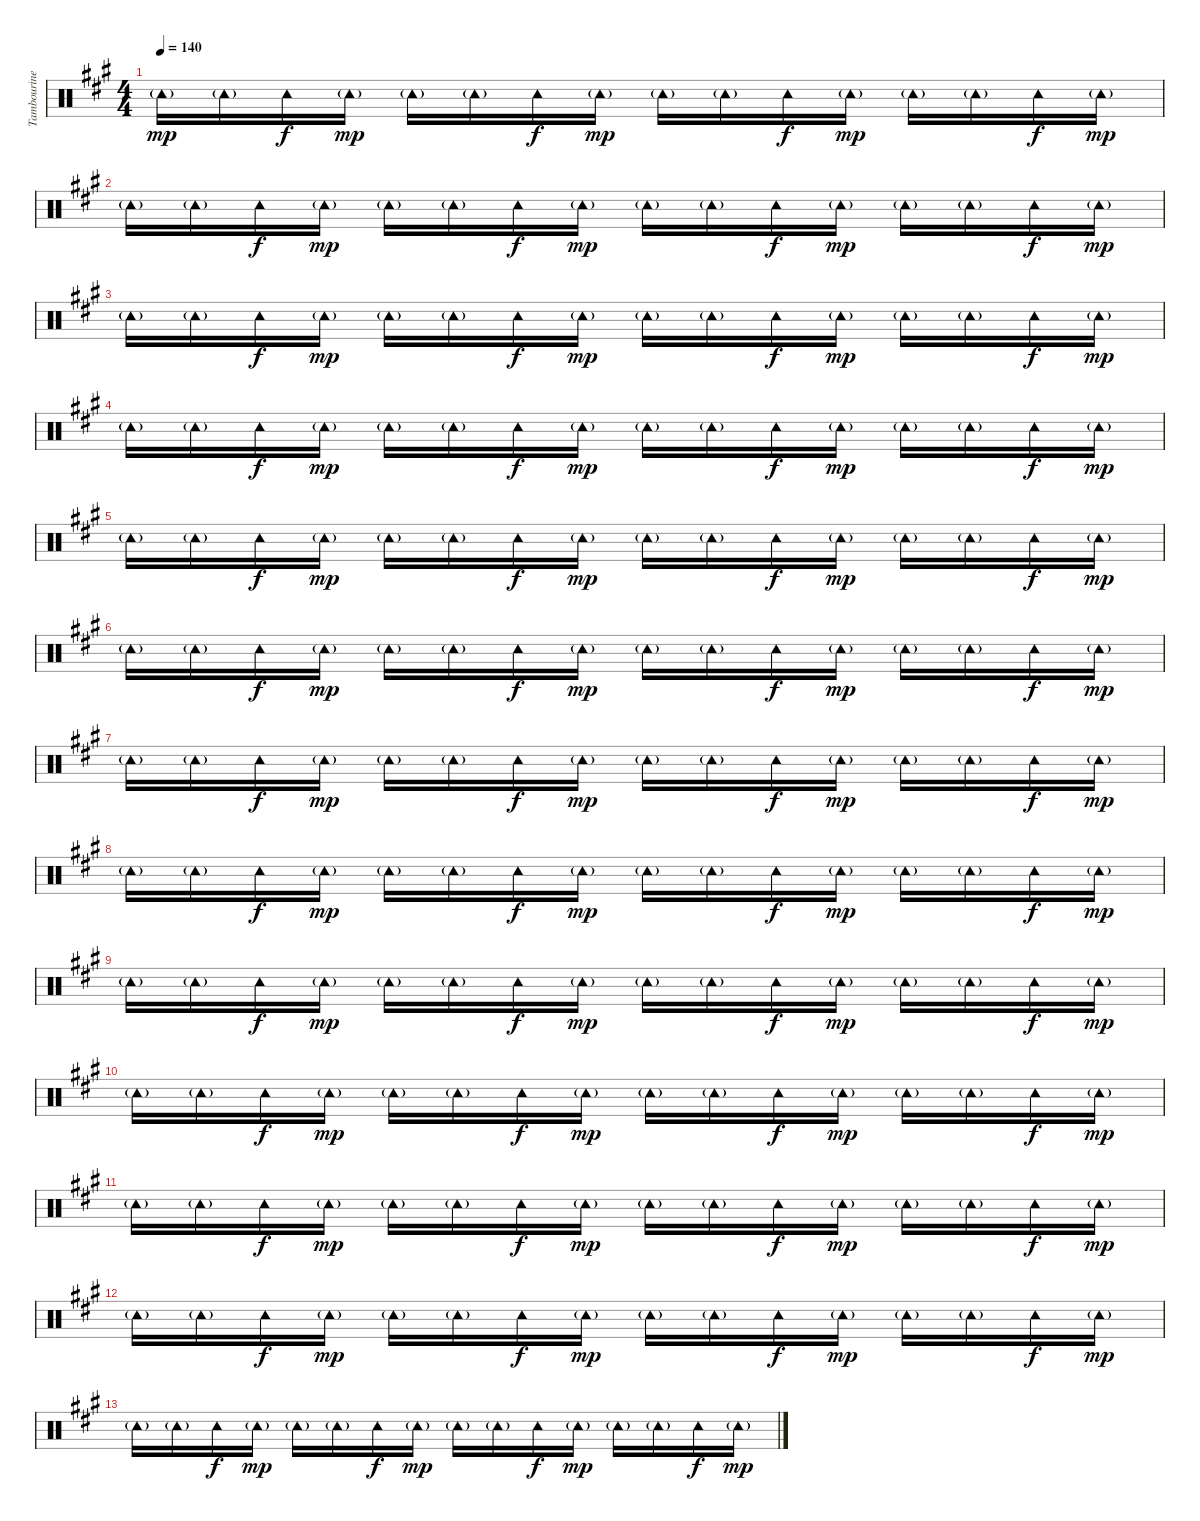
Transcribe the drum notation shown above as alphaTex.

\track ("Tambourine" "Tambourine") {instrument percussion}
\staff {score}
\articulation defaults
\ts (4 4)
\tempo 140
\clef neutral
\ks a "Tambourine (hit)"{g}.16{dy mp} "Tambourine (hit)"{g}.16 "Tambourine (hit)".16{dy f} "Tambourine (hit)"{g}.16{dy mp} "Tambourine (hit)"{g}.16 "Tambourine (hit)"{g}.16 "Tambourine (hit)".16{dy f} "Tambourine (hit)"{g}.16{dy mp} "Tambourine (hit)"{g}.16 "Tambourine (hit)"{g}.16 "Tambourine (hit)".16{dy f} "Tambourine (hit)"{g}.16{dy mp} "Tambourine (hit)"{g}.16 "Tambourine (hit)"{g}.16 "Tambourine (hit)".16{dy f} "Tambourine (hit)"{g}.16{dy mp}
|
"Tambourine (hit)"{g}.16 "Tambourine (hit)"{g}.16 "Tambourine (hit)".16{dy f} "Tambourine (hit)"{g}.16{dy mp} "Tambourine (hit)"{g}.16 "Tambourine (hit)"{g}.16 "Tambourine (hit)".16{dy f} "Tambourine (hit)"{g}.16{dy mp} "Tambourine (hit)"{g}.16 "Tambourine (hit)"{g}.16 "Tambourine (hit)".16{dy f} "Tambourine (hit)"{g}.16{dy mp} "Tambourine (hit)"{g}.16 "Tambourine (hit)"{g}.16 "Tambourine (hit)".16{dy f} "Tambourine (hit)"{g}.16{dy mp} |
"Tambourine (hit)"{g}.16 "Tambourine (hit)"{g}.16 "Tambourine (hit)".16{dy f} "Tambourine (hit)"{g}.16{dy mp} "Tambourine (hit)"{g}.16 "Tambourine (hit)"{g}.16 "Tambourine (hit)".16{dy f} "Tambourine (hit)"{g}.16{dy mp} "Tambourine (hit)"{g}.16 "Tambourine (hit)"{g}.16 "Tambourine (hit)".16{dy f} "Tambourine (hit)"{g}.16{dy mp} "Tambourine (hit)"{g}.16 "Tambourine (hit)"{g}.16 "Tambourine (hit)".16{dy f} "Tambourine (hit)"{g}.16{dy mp} |
"Tambourine (hit)"{g}.16 "Tambourine (hit)"{g}.16 "Tambourine (hit)".16{dy f} "Tambourine (hit)"{g}.16{dy mp} "Tambourine (hit)"{g}.16 "Tambourine (hit)"{g}.16 "Tambourine (hit)".16{dy f} "Tambourine (hit)"{g}.16{dy mp} "Tambourine (hit)"{g}.16 "Tambourine (hit)"{g}.16 "Tambourine (hit)".16{dy f} "Tambourine (hit)"{g}.16{dy mp} "Tambourine (hit)"{g}.16 "Tambourine (hit)"{g}.16 "Tambourine (hit)".16{dy f} "Tambourine (hit)"{g}.16{dy mp} |
"Tambourine (hit)"{g}.16 "Tambourine (hit)"{g}.16 "Tambourine (hit)".16{dy f} "Tambourine (hit)"{g}.16{dy mp} "Tambourine (hit)"{g}.16 "Tambourine (hit)"{g}.16 "Tambourine (hit)".16{dy f} "Tambourine (hit)"{g}.16{dy mp} "Tambourine (hit)"{g}.16 "Tambourine (hit)"{g}.16 "Tambourine (hit)".16{dy f} "Tambourine (hit)"{g}.16{dy mp} "Tambourine (hit)"{g}.16 "Tambourine (hit)"{g}.16 "Tambourine (hit)".16{dy f} "Tambourine (hit)"{g}.16{dy mp} |
"Tambourine (hit)"{g}.16 "Tambourine (hit)"{g}.16 "Tambourine (hit)".16{dy f} "Tambourine (hit)"{g}.16{dy mp} "Tambourine (hit)"{g}.16 "Tambourine (hit)"{g}.16 "Tambourine (hit)".16{dy f} "Tambourine (hit)"{g}.16{dy mp} "Tambourine (hit)"{g}.16 "Tambourine (hit)"{g}.16 "Tambourine (hit)".16{dy f} "Tambourine (hit)"{g}.16{dy mp} "Tambourine (hit)"{g}.16 "Tambourine (hit)"{g}.16 "Tambourine (hit)".16{dy f} "Tambourine (hit)"{g}.16{dy mp} |
"Tambourine (hit)"{g}.16 "Tambourine (hit)"{g}.16 "Tambourine (hit)".16{dy f} "Tambourine (hit)"{g}.16{dy mp} "Tambourine (hit)"{g}.16 "Tambourine (hit)"{g}.16 "Tambourine (hit)".16{dy f} "Tambourine (hit)"{g}.16{dy mp} "Tambourine (hit)"{g}.16 "Tambourine (hit)"{g}.16 "Tambourine (hit)".16{dy f} "Tambourine (hit)"{g}.16{dy mp} "Tambourine (hit)"{g}.16 "Tambourine (hit)"{g}.16 "Tambourine (hit)".16{dy f} "Tambourine (hit)"{g}.16{dy mp} |
"Tambourine (hit)"{g}.16 "Tambourine (hit)"{g}.16 "Tambourine (hit)".16{dy f} "Tambourine (hit)"{g}.16{dy mp} "Tambourine (hit)"{g}.16 "Tambourine (hit)"{g}.16 "Tambourine (hit)".16{dy f} "Tambourine (hit)"{g}.16{dy mp} "Tambourine (hit)"{g}.16 "Tambourine (hit)"{g}.16 "Tambourine (hit)".16{dy f} "Tambourine (hit)"{g}.16{dy mp} "Tambourine (hit)"{g}.16 "Tambourine (hit)"{g}.16 "Tambourine (hit)".16{dy f} "Tambourine (hit)"{g}.16{dy mp} |
"Tambourine (hit)"{g}.16 "Tambourine (hit)"{g}.16 "Tambourine (hit)".16{dy f} "Tambourine (hit)"{g}.16{dy mp} "Tambourine (hit)"{g}.16 "Tambourine (hit)"{g}.16 "Tambourine (hit)".16{dy f} "Tambourine (hit)"{g}.16{dy mp} "Tambourine (hit)"{g}.16 "Tambourine (hit)"{g}.16 "Tambourine (hit)".16{dy f} "Tambourine (hit)"{g}.16{dy mp} "Tambourine (hit)"{g}.16 "Tambourine (hit)"{g}.16 "Tambourine (hit)".16{dy f} "Tambourine (hit)"{g}.16{dy mp} |
"Tambourine (hit)"{g}.16 "Tambourine (hit)"{g}.16 "Tambourine (hit)".16{dy f} "Tambourine (hit)"{g}.16{dy mp} "Tambourine (hit)"{g}.16 "Tambourine (hit)"{g}.16 "Tambourine (hit)".16{dy f} "Tambourine (hit)"{g}.16{dy mp} "Tambourine (hit)"{g}.16 "Tambourine (hit)"{g}.16 "Tambourine (hit)".16{dy f} "Tambourine (hit)"{g}.16{dy mp} "Tambourine (hit)"{g}.16 "Tambourine (hit)"{g}.16 "Tambourine (hit)".16{dy f} "Tambourine (hit)"{g}.16{dy mp} |
"Tambourine (hit)"{g}.16 "Tambourine (hit)"{g}.16 "Tambourine (hit)".16{dy f} "Tambourine (hit)"{g}.16{dy mp} "Tambourine (hit)"{g}.16 "Tambourine (hit)"{g}.16 "Tambourine (hit)".16{dy f} "Tambourine (hit)"{g}.16{dy mp} "Tambourine (hit)"{g}.16 "Tambourine (hit)"{g}.16 "Tambourine (hit)".16{dy f} "Tambourine (hit)"{g}.16{dy mp} "Tambourine (hit)"{g}.16 "Tambourine (hit)"{g}.16 "Tambourine (hit)".16{dy f} "Tambourine (hit)"{g}.16{dy mp} |
"Tambourine (hit)"{g}.16 "Tambourine (hit)"{g}.16 "Tambourine (hit)".16{dy f} "Tambourine (hit)"{g}.16{dy mp} "Tambourine (hit)"{g}.16 "Tambourine (hit)"{g}.16 "Tambourine (hit)".16{dy f} "Tambourine (hit)"{g}.16{dy mp} "Tambourine (hit)"{g}.16 "Tambourine (hit)"{g}.16 "Tambourine (hit)".16{dy f} "Tambourine (hit)"{g}.16{dy mp} "Tambourine (hit)"{g}.16 "Tambourine (hit)"{g}.16 "Tambourine (hit)".16{dy f} "Tambourine (hit)"{g}.16{dy mp} |
"Tambourine (hit)"{g}.16 "Tambourine (hit)"{g}.16 "Tambourine (hit)".16{dy f} "Tambourine (hit)"{g}.16{dy mp} "Tambourine (hit)"{g}.16 "Tambourine (hit)"{g}.16 "Tambourine (hit)".16{dy f} "Tambourine (hit)"{g}.16{dy mp} "Tambourine (hit)"{g}.16 "Tambourine (hit)"{g}.16 "Tambourine (hit)".16{dy f} "Tambourine (hit)"{g}.16{dy mp} "Tambourine (hit)"{g}.16 "Tambourine (hit)"{g}.16 "Tambourine (hit)".16{dy f} "Tambourine (hit)"{g}.16{dy mp}
